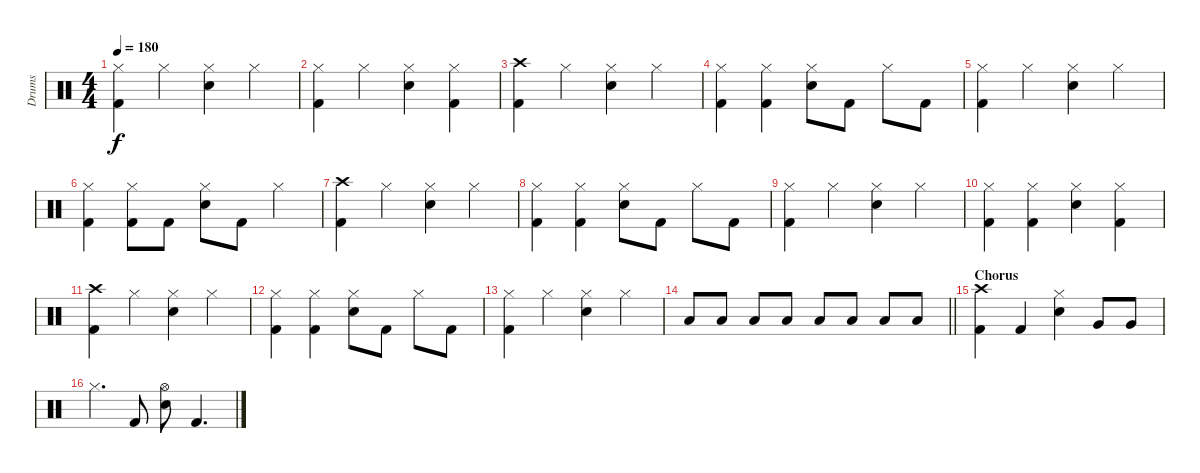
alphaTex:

\track ("Drums" "Drums") {instrument percussion}
\staff {score}
\articulation defaults
\ts (4 4)
\tempo 180
\clef neutral
\ks c
("Hi-Hat (closed)" "Kick (hit) 2").4{dy f} "Hi-Hat (closed)".4 ("Hi-Hat (closed)" "Snare (hit) 2").4 "Hi-Hat (closed)".4 |
("Hi-Hat (closed)" "Kick (hit) 2").4 "Hi-Hat (closed)".4 ("Hi-Hat (closed)" "Snare (hit) 2").4 ("Hi-Hat (closed)" "Kick (hit) 2").4 |
("Crash high (hit)" "Kick (hit) 2").4 "Hi-Hat (closed)".4 ("Hi-Hat (closed)" "Snare (hit) 2").4 "Hi-Hat (closed)".4 |
("Hi-Hat (closed)" "Kick (hit) 2").4 ("Hi-Hat (closed)" "Kick (hit) 2").4 ("Hi-Hat (closed)" "Snare (hit) 2").8 "Kick (hit) 2".8 "Hi-Hat (closed)".8 "Kick (hit) 2".8 |
("Hi-Hat (closed)" "Kick (hit) 2").4 "Hi-Hat (closed)".4 ("Hi-Hat (closed)" "Snare (hit) 2").4 "Hi-Hat (closed)".4 |
("Hi-Hat (closed)" "Kick (hit) 2").4 ("Hi-Hat (closed)" "Kick (hit) 2").8 "Kick (hit) 2".8 ("Hi-Hat (closed)" "Snare (hit) 2").8 "Kick (hit) 2".8 "Hi-Hat (closed)".4 |
("Crash high (hit)" "Kick (hit) 2").4 "Hi-Hat (closed)".4 ("Hi-Hat (closed)" "Snare (hit) 2").4 "Hi-Hat (closed)".4 |
("Hi-Hat (closed)" "Kick (hit) 2").4 ("Hi-Hat (closed)" "Kick (hit) 2").4 ("Hi-Hat (closed)" "Snare (hit) 2").8 "Kick (hit) 2".8 "Hi-Hat (closed)".8 "Kick (hit) 2".8 |
("Hi-Hat (closed)" "Kick (hit) 2").4 "Hi-Hat (closed)".4 ("Hi-Hat (closed)" "Snare (hit) 2").4 "Hi-Hat (closed)".4 |
("Hi-Hat (closed)" "Kick (hit) 2").4 ("Hi-Hat (closed)" "Kick (hit) 2").4 ("Hi-Hat (closed)" "Snare (hit) 2").4 ("Hi-Hat (closed)" "Kick (hit) 2").4 |
("Crash high (hit)" "Kick (hit) 2").4 "Hi-Hat (closed)".4 ("Hi-Hat (closed)" "Snare (hit) 2").4 "Hi-Hat (closed)".4 |
("Hi-Hat (closed)" "Kick (hit) 2").4 ("Hi-Hat (closed)" "Kick (hit) 2").4 ("Hi-Hat (closed)" "Snare (hit) 2").8 "Kick (hit) 2".8 "Hi-Hat (closed)".8 "Kick (hit) 2".8 |
("Hi-Hat (closed)" "Kick (hit) 2").4 "Hi-Hat (closed)".4 ("Hi-Hat (closed)" "Snare (hit) 2").4 "Hi-Hat (closed)".4 |
\barLineRight lightlight "Low Tom (hit)".8 "Low Tom (hit)".8 "Low Tom (hit)".8 "Low Tom (hit)".8 "Low Tom (hit)".8 "Low Tom (hit)".8 "Low Tom (hit)".8 "Low Tom (hit)".8
|
\section ("" "Chorus")
("Crash high (hit)" "Kick (hit) 2").4 "Kick (hit) 2".4 ("Hi-Hat (closed)" "Snare (hit) 2").4 "Very Low Tom (hit)".8 "Very Low Tom (hit)".8 |
"Hi-Hat (closed)".4{d} "Kick (hit) 2".8 ("Hi-Hat (open)" "Snare (hit) 2").8 "Kick (hit) 2".4{d}
